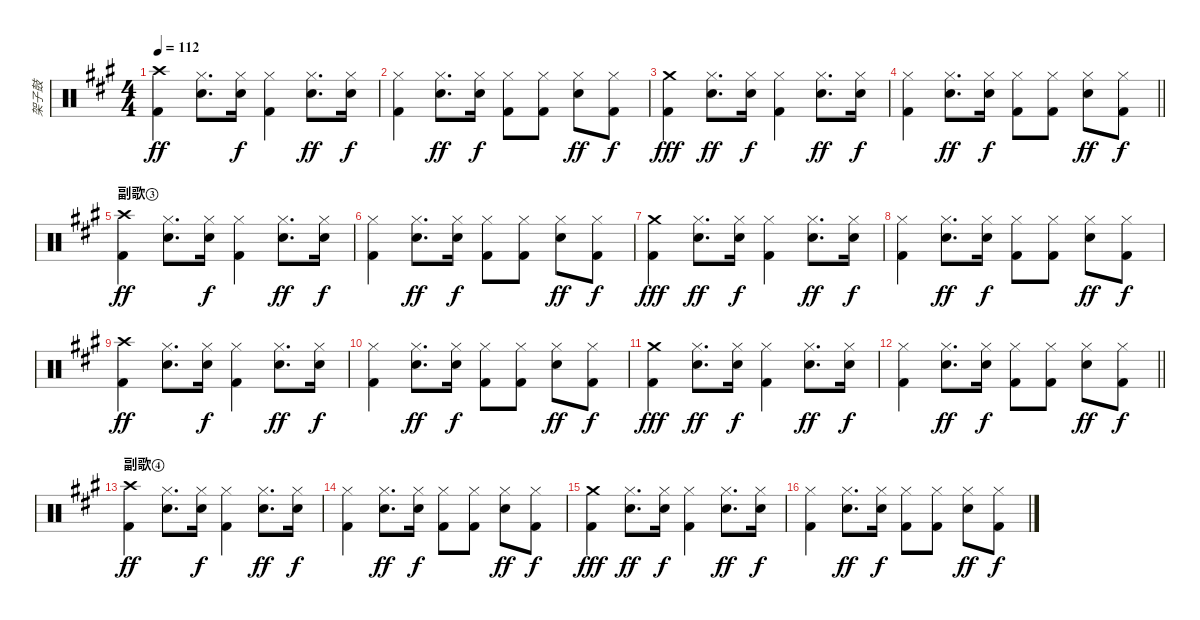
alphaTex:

\track ("架子鼓" "架子鼓") {instrument percussion}
\staff {score}
\articulation defaults
\ts (4 4)
\tempo 112
\clef neutral
\ks a
("Crash high (hit)" "Kick (hit) 2").4{dy ff} ("Hi-Hat (closed)" "Electric Snare (hit)").8{d} ("Hi-Hat (closed)" "Electric Snare (hit)").16{dy f} ("Hi-Hat (closed)" "Kick (hit) 2").4 ("Hi-Hat (closed)" "Electric Snare (hit)").8{d dy ff} ("Hi-Hat (closed)" "Electric Snare (hit)").16{dy f} |
("Hi-Hat (closed)" "Kick (hit) 2").4 ("Hi-Hat (closed)" "Electric Snare (hit)").8{d dy ff} ("Hi-Hat (closed)" "Electric Snare (hit)").16{dy f} ("Hi-Hat (closed)" "Kick (hit) 2").8 ("Hi-Hat (closed)" "Kick (hit) 2").8 ("Hi-Hat (closed)" "Electric Snare (hit)").8{dy ff} ("Hi-Hat (closed)" "Kick (hit) 2").8{dy f} |
("Crash medium (hit)" "Kick (hit) 2").4{dy fff} ("Hi-Hat (closed)" "Electric Snare (hit)").8{d dy ff} ("Hi-Hat (closed)" "Electric Snare (hit)").16{dy f} ("Hi-Hat (closed)" "Kick (hit) 2").4 ("Hi-Hat (closed)" "Electric Snare (hit)").8{d dy ff} ("Hi-Hat (closed)" "Electric Snare (hit)").16{dy f} |
\barLineRight lightlight
("Hi-Hat (closed)" "Kick (hit) 2").4 ("Hi-Hat (closed)" "Electric Snare (hit)").8{d dy ff} ("Hi-Hat (closed)" "Electric Snare (hit)").16{dy f} ("Hi-Hat (closed)" "Kick (hit) 2").8 ("Hi-Hat (closed)" "Kick (hit) 2").8 ("Hi-Hat (closed)" "Electric Snare (hit)").8{dy ff} ("Hi-Hat (closed)" "Kick (hit) 2").8{dy f} |
\section ("" "副歌③")
("Crash high (hit)" "Kick (hit) 2").4{dy ff} ("Hi-Hat (closed)" "Electric Snare (hit)").8{d} ("Hi-Hat (closed)" "Electric Snare (hit)").16{dy f} ("Hi-Hat (closed)" "Kick (hit) 2").4 ("Hi-Hat (closed)" "Electric Snare (hit)").8{d dy ff} ("Hi-Hat (closed)" "Electric Snare (hit)").16{dy f} |
("Hi-Hat (closed)" "Kick (hit) 2").4 ("Hi-Hat (closed)" "Electric Snare (hit)").8{d dy ff} ("Hi-Hat (closed)" "Electric Snare (hit)").16{dy f} ("Hi-Hat (closed)" "Kick (hit) 2").8 ("Hi-Hat (closed)" "Kick (hit) 2").8 ("Hi-Hat (closed)" "Electric Snare (hit)").8{dy ff} ("Hi-Hat (closed)" "Kick (hit) 2").8{dy f} |
("Crash medium (hit)" "Kick (hit) 2").4{dy fff} ("Hi-Hat (closed)" "Electric Snare (hit)").8{d dy ff} ("Hi-Hat (closed)" "Electric Snare (hit)").16{dy f} ("Hi-Hat (closed)" "Kick (hit) 2").4 ("Hi-Hat (closed)" "Electric Snare (hit)").8{d dy ff} ("Hi-Hat (closed)" "Electric Snare (hit)").16{dy f} |
("Hi-Hat (closed)" "Kick (hit) 2").4 ("Hi-Hat (closed)" "Electric Snare (hit)").8{d dy ff} ("Hi-Hat (closed)" "Electric Snare (hit)").16{dy f} ("Hi-Hat (closed)" "Kick (hit) 2").8 ("Hi-Hat (closed)" "Kick (hit) 2").8 ("Hi-Hat (closed)" "Electric Snare (hit)").8{dy ff} ("Hi-Hat (closed)" "Kick (hit) 2").8{dy f} |
("Crash high (hit)" "Kick (hit) 2").4{dy ff} ("Hi-Hat (closed)" "Electric Snare (hit)").8{d} ("Hi-Hat (closed)" "Electric Snare (hit)").16{dy f} ("Hi-Hat (closed)" "Kick (hit) 2").4 ("Hi-Hat (closed)" "Electric Snare (hit)").8{d dy ff} ("Hi-Hat (closed)" "Electric Snare (hit)").16{dy f} |
("Hi-Hat (closed)" "Kick (hit) 2").4 ("Hi-Hat (closed)" "Electric Snare (hit)").8{d dy ff} ("Hi-Hat (closed)" "Electric Snare (hit)").16{dy f} ("Hi-Hat (closed)" "Kick (hit) 2").8 ("Hi-Hat (closed)" "Kick (hit) 2").8 ("Hi-Hat (closed)" "Electric Snare (hit)").8{dy ff} ("Hi-Hat (closed)" "Kick (hit) 2").8{dy f} |
("Crash medium (hit)" "Kick (hit) 2").4{dy fff} ("Hi-Hat (closed)" "Electric Snare (hit)").8{d dy ff} ("Hi-Hat (closed)" "Electric Snare (hit)").16{dy f} ("Hi-Hat (closed)" "Kick (hit) 2").4 ("Hi-Hat (closed)" "Electric Snare (hit)").8{d dy ff} ("Hi-Hat (closed)" "Electric Snare (hit)").16{dy f} |
\barLineRight lightlight
("Hi-Hat (closed)" "Kick (hit) 2").4 ("Hi-Hat (closed)" "Electric Snare (hit)").8{d dy ff} ("Hi-Hat (closed)" "Electric Snare (hit)").16{dy f} ("Hi-Hat (closed)" "Kick (hit) 2").8 ("Hi-Hat (closed)" "Kick (hit) 2").8 ("Hi-Hat (closed)" "Electric Snare (hit)").8{dy ff} ("Hi-Hat (closed)" "Kick (hit) 2").8{dy f} |
\section ("" "副歌④")
("Crash high (hit)" "Kick (hit) 2").4{dy ff} ("Hi-Hat (closed)" "Electric Snare (hit)").8{d} ("Hi-Hat (closed)" "Electric Snare (hit)").16{dy f} ("Hi-Hat (closed)" "Kick (hit) 2").4 ("Hi-Hat (closed)" "Electric Snare (hit)").8{d dy ff} ("Hi-Hat (closed)" "Electric Snare (hit)").16{dy f} |
("Hi-Hat (closed)" "Kick (hit) 2").4 ("Hi-Hat (closed)" "Electric Snare (hit)").8{d dy ff} ("Hi-Hat (closed)" "Electric Snare (hit)").16{dy f} ("Hi-Hat (closed)" "Kick (hit) 2").8 ("Hi-Hat (closed)" "Kick (hit) 2").8 ("Hi-Hat (closed)" "Electric Snare (hit)").8{dy ff} ("Hi-Hat (closed)" "Kick (hit) 2").8{dy f} |
("Crash medium (hit)" "Kick (hit) 2").4{dy fff} ("Hi-Hat (closed)" "Electric Snare (hit)").8{d dy ff} ("Hi-Hat (closed)" "Electric Snare (hit)").16{dy f} ("Hi-Hat (closed)" "Kick (hit) 2").4 ("Hi-Hat (closed)" "Electric Snare (hit)").8{d dy ff} ("Hi-Hat (closed)" "Electric Snare (hit)").16{dy f} |
("Hi-Hat (closed)" "Kick (hit) 2").4 ("Hi-Hat (closed)" "Electric Snare (hit)").8{d dy ff} ("Hi-Hat (closed)" "Electric Snare (hit)").16{dy f} ("Hi-Hat (closed)" "Kick (hit) 2").8 ("Hi-Hat (closed)" "Kick (hit) 2").8 ("Hi-Hat (closed)" "Electric Snare (hit)").8{dy ff} ("Hi-Hat (closed)" "Kick (hit) 2").8{dy f}
